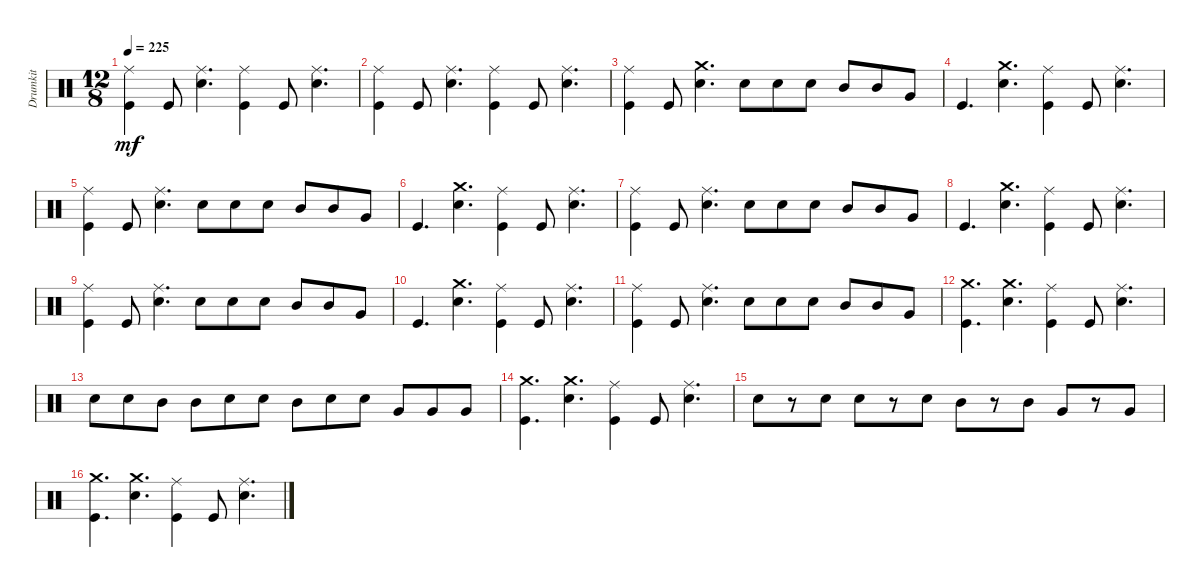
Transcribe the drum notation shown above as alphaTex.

\track ("Drumkit" "Drumkit") {instrument percussion}
\staff {score}
\articulation defaults
\ts (12 8)
\tempo 225
\clef neutral
\ks c
("Kick (hit)" "Ride (middle)").4{dy mf} "Kick (hit)".8 ("Snare (hit) 2" "Ride (middle)").4{d} ("Kick (hit)" "Ride (middle)").4 "Kick (hit)".8 ("Snare (hit) 2" "Ride (middle)").4{d} |
("Kick (hit)" "Ride (middle)").4 "Kick (hit)".8 ("Snare (hit) 2" "Ride (middle)").4{d} ("Kick (hit)" "Ride (middle)").4 "Kick (hit)".8 ("Snare (hit) 2" "Ride (middle)").4{d} |
("Kick (hit)" "Ride (middle)").4 "Kick (hit)".8 ("Snare (hit) 2" "Crash medium (hit)").4{d} "Snare (hit) 2".8 "Snare (hit) 2".8 "Snare (hit) 2".8 "Mid Tom (hit)".8 "Mid Tom (hit)".8 "Very Low Tom (hit)".8 |
"Kick (hit)".4{d} ("Snare (hit) 2" "Crash medium (hit)").4{d} ("Kick (hit)" "Ride (middle)").4 "Kick (hit)".8 ("Snare (hit) 2" "Ride (middle)").4{d} |
("Kick (hit)" "Ride (middle)").4 "Kick (hit)".8 ("Snare (hit) 2" "Ride (middle)").4{d} "Snare (hit) 2".8 "Snare (hit) 2".8 "Snare (hit) 2".8 "Mid Tom (hit)".8 "Mid Tom (hit)".8 "Very Low Tom (hit)".8 |
"Kick (hit)".4{d} ("Snare (hit) 2" "Crash medium (hit)").4{d} ("Kick (hit)" "Ride (middle)").4 "Kick (hit)".8 ("Snare (hit) 2" "Ride (middle)").4{d} |
("Kick (hit)" "Ride (middle)").4 "Kick (hit)".8 ("Snare (hit) 2" "Ride (middle)").4{d} "Snare (hit) 2".8 "Snare (hit) 2".8 "Snare (hit) 2".8 "Mid Tom (hit)".8 "Mid Tom (hit)".8 "Very Low Tom (hit)".8 |
"Kick (hit)".4{d} ("Snare (hit) 2" "Crash medium (hit)").4{d} ("Kick (hit)" "Ride (middle)").4 "Kick (hit)".8 ("Snare (hit) 2" "Ride (middle)").4{d} |
("Kick (hit)" "Ride (middle)").4 "Kick (hit)".8 ("Snare (hit) 2" "Ride (middle)").4{d} "Snare (hit) 2".8 "Snare (hit) 2".8 "Snare (hit) 2".8 "Mid Tom (hit)".8 "Mid Tom (hit)".8 "Very Low Tom (hit)".8 |
"Kick (hit)".4{d} ("Snare (hit) 2" "Crash medium (hit)").4{d} ("Kick (hit)" "Ride (middle)").4 "Kick (hit)".8 ("Snare (hit) 2" "Ride (middle)").4{d} |
("Kick (hit)" "Ride (middle)").4 "Kick (hit)".8 ("Snare (hit) 2" "Ride (middle)").4{d} "Snare (hit) 2".8 "Snare (hit) 2".8 "Snare (hit) 2".8 "Mid Tom (hit)".8 "Mid Tom (hit)".8 "Very Low Tom (hit)".8 |
("Kick (hit)" "Crash medium (hit)").4{d} ("Snare (hit) 2" "Crash medium (hit)").4{d} ("Kick (hit)" "Ride (middle)").4 "Kick (hit)".8 ("Snare (hit) 2" "Ride (middle)").4{d} |
"Snare (hit) 2".8 "Snare (hit) 2".8 "Mid Tom (hit)".8 "Mid Tom (hit)".8 "Snare (hit) 2".8 "Snare (hit) 2".8 "Mid Tom (hit)".8 "Snare (hit) 2".8 "Snare (hit) 2".8 "Very Low Tom (hit)".8 "Very Low Tom (hit)".8 "Very Low Tom (hit)".8 |
("Kick (hit)" "Crash medium (hit)").4{d} ("Snare (hit) 2" "Crash medium (hit)").4{d} ("Kick (hit)" "Ride (middle)").4 "Kick (hit)".8 ("Snare (hit) 2" "Ride (middle)").4{d} |
"Snare (hit) 2".8 r.8 "Snare (hit) 2".8 "Snare (hit) 2".8 r.8 "Snare (hit) 2".8 "Mid Tom (hit)".8 r.8 "Mid Tom (hit)".8 "Very Low Tom (hit)".8 r.8 "Very Low Tom (hit)".8 |
("Kick (hit)" "Crash medium (hit)").4{d} ("Snare (hit) 2" "Crash medium (hit)").4{d} ("Kick (hit)" "Ride (middle)").4 "Kick (hit)".8 ("Snare (hit) 2" "Ride (middle)").4{d}
